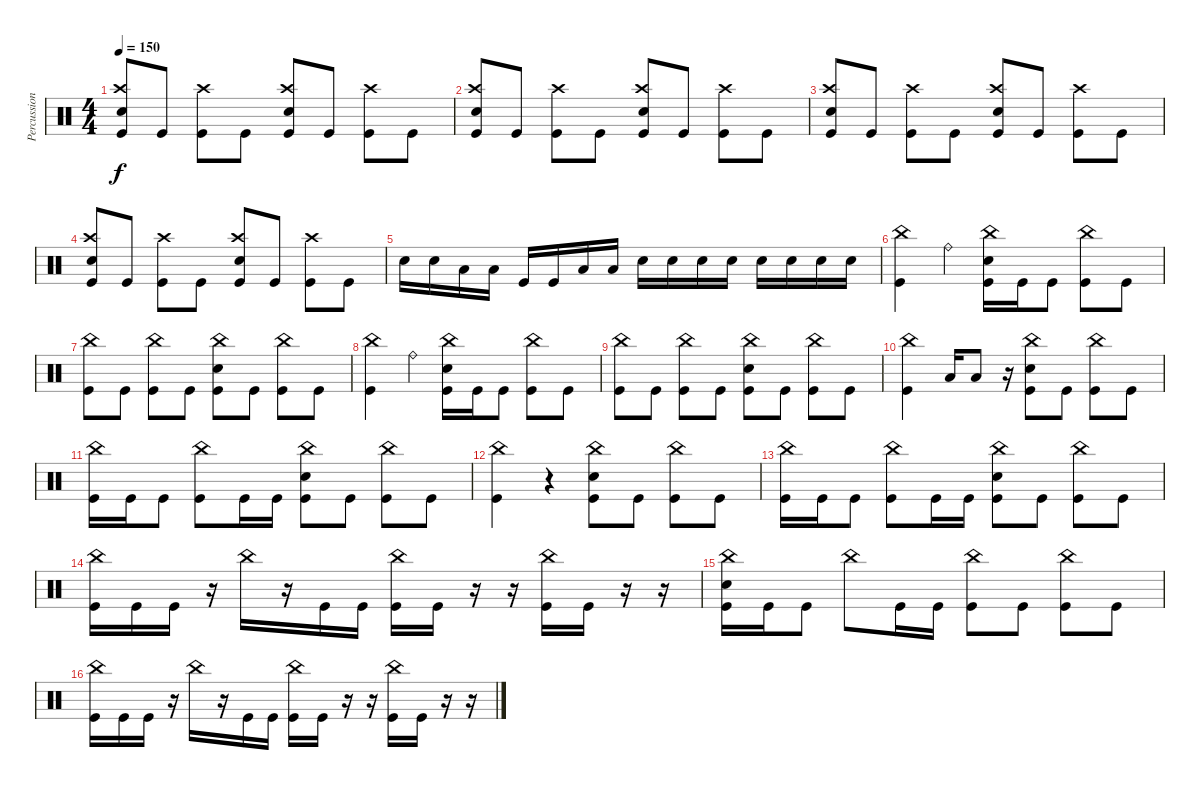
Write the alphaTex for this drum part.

\track ("Percussion" "Percussion") {instrument percussion}
\staff {score}
\articulation defaults
\ts (4 4)
\tempo 150
\clef neutral
\ks c
("Kick (hit)" "Crash high (hit)" "Electric Snare (hit)").8{dy f} "Kick (hit)".8 ("Kick (hit)" "Crash high (hit)").8 "Kick (hit)".8 ("Kick (hit)" "Crash high (hit)" "Electric Snare (hit)").8 "Kick (hit)".8 ("Kick (hit)" "Crash high (hit)").8 "Kick (hit)".8 |
("Kick (hit)" "Crash high (hit)" "Electric Snare (hit)").8 "Kick (hit)".8 ("Kick (hit)" "Crash high (hit)").8 "Kick (hit)".8 ("Kick (hit)" "Crash high (hit)" "Electric Snare (hit)").8 "Kick (hit)".8 ("Kick (hit)" "Crash high (hit)").8 "Kick (hit)".8 |
("Kick (hit)" "Crash high (hit)" "Electric Snare (hit)").8 "Kick (hit)".8 ("Kick (hit)" "Crash high (hit)").8 "Kick (hit)".8 ("Kick (hit)" "Crash high (hit)" "Electric Snare (hit)").8 "Kick (hit)".8 ("Kick (hit)" "Crash high (hit)").8 "Kick (hit)".8 |
("Kick (hit)" "Crash high (hit)" "Electric Snare (hit)").8 "Kick (hit)".8 ("Kick (hit)" "Crash high (hit)").8 "Kick (hit)".8 ("Kick (hit)" "Crash high (hit)" "Electric Snare (hit)").8 "Kick (hit)".8 ("Kick (hit)" "Crash high (hit)").8 "Kick (hit)".8 |
"Electric Snare (hit)".16 "Electric Snare (hit)".16 "Low Floor Tom (hit)".16 "Low Floor Tom (hit)".16 "Kick (hit)".16 "Kick (hit)".16 "Low Tom (hit)".16 "Low Tom (hit)".16 "Electric Snare (hit)".16 "Electric Snare (hit)".16 "Electric Snare (hit)".16 "Electric Snare (hit)".16 "Electric Snare (hit)".16 "Electric Snare (hit)".16 "Electric Snare (hit)".16 "Electric Snare (hit)".16 |
("China (hit)" "Kick (hit)").4 "Ride (bell)".4 ("China (hit)" "Electric Snare (hit)" "Kick (hit)").16 "Kick (hit)".16 "Kick (hit)".8 ("China (hit)" "Kick (hit)").8 "Kick (hit)".8 |
("China (hit)" "Kick (hit)").8 "Kick (hit)".8 ("China (hit)" "Kick (hit)").8 "Kick (hit)".8 ("China (hit)" "Electric Snare (hit)" "Kick (hit)").8 "Kick (hit)".8 ("China (hit)" "Kick (hit)").8 "Kick (hit)".8 |
("China (hit)" "Kick (hit)").4 "Ride (bell)".4 ("China (hit)" "Electric Snare (hit)" "Kick (hit)").16 "Kick (hit)".16 "Kick (hit)".8 ("China (hit)" "Kick (hit)").8 "Kick (hit)".8 |
("China (hit)" "Kick (hit)").8 "Kick (hit)".8 ("China (hit)" "Kick (hit)").8 "Kick (hit)".8 ("China (hit)" "Electric Snare (hit)" "Kick (hit)").8 "Kick (hit)".8 ("China (hit)" "Kick (hit)").8 "Kick (hit)".8 |
("China (hit)" "Kick (hit)").4 "Low Tom (hit)".16 "Low Tom (hit)".8 r.16 ("China (hit)" "Electric Snare (hit)" "Kick (hit)").8 "Kick (hit)".8 ("China (hit)" "Kick (hit)").8 "Kick (hit)".8 |
("China (hit)" "Kick (hit)").16 "Kick (hit)".16 "Kick (hit)".8 ("China (hit)" "Kick (hit)").8 "Kick (hit)".16 "Kick (hit)".16 ("China (hit)" "Electric Snare (hit)" "Kick (hit)").8 "Kick (hit)".8 ("China (hit)" "Kick (hit)").8 "Kick (hit)".8 |
("China (hit)" "Kick (hit)").4 r.4 ("China (hit)" "Electric Snare (hit)" "Kick (hit)").8 "Kick (hit)".8 ("China (hit)" "Kick (hit)").8 "Kick (hit)".8 |
("China (hit)" "Kick (hit)").16 "Kick (hit)".16 "Kick (hit)".8 ("China (hit)" "Kick (hit)").8 "Kick (hit)".16 "Kick (hit)".16 ("China (hit)" "Electric Snare (hit)" "Kick (hit)").8 "Kick (hit)".8 ("China (hit)" "Kick (hit)").8 "Kick (hit)".8 |
("China (hit)" "Kick (hit)").16 "Kick (hit)".16 "Kick (hit)".16 r.16 "China (hit)".16 r.16 "Kick (hit)".16 "Kick (hit)".16 ("China (hit)" "Kick (hit)").16 "Kick (hit)".16 r.16 r.16 ("China (hit)" "Kick (hit)").16 "Kick (hit)".16 r.16 r.16 |
("China (hit)" "Kick (hit)" "Electric Snare (hit)").16 "Kick (hit)".16 "Kick (hit)".8 "China (hit)".8 "Kick (hit)".16 "Kick (hit)".16 ("China (hit)" "Kick (hit)").8 "Kick (hit)".8 ("China (hit)" "Kick (hit)").8 "Kick (hit)".8 |
("China (hit)" "Kick (hit)").16 "Kick (hit)".16 "Kick (hit)".16 r.16 "China (hit)".16 r.16 "Kick (hit)".16 "Kick (hit)".16 ("China (hit)" "Kick (hit)").16 "Kick (hit)".16 r.16 r.16 ("China (hit)" "Kick (hit)").16 "Kick (hit)".16 r.16 r.16
